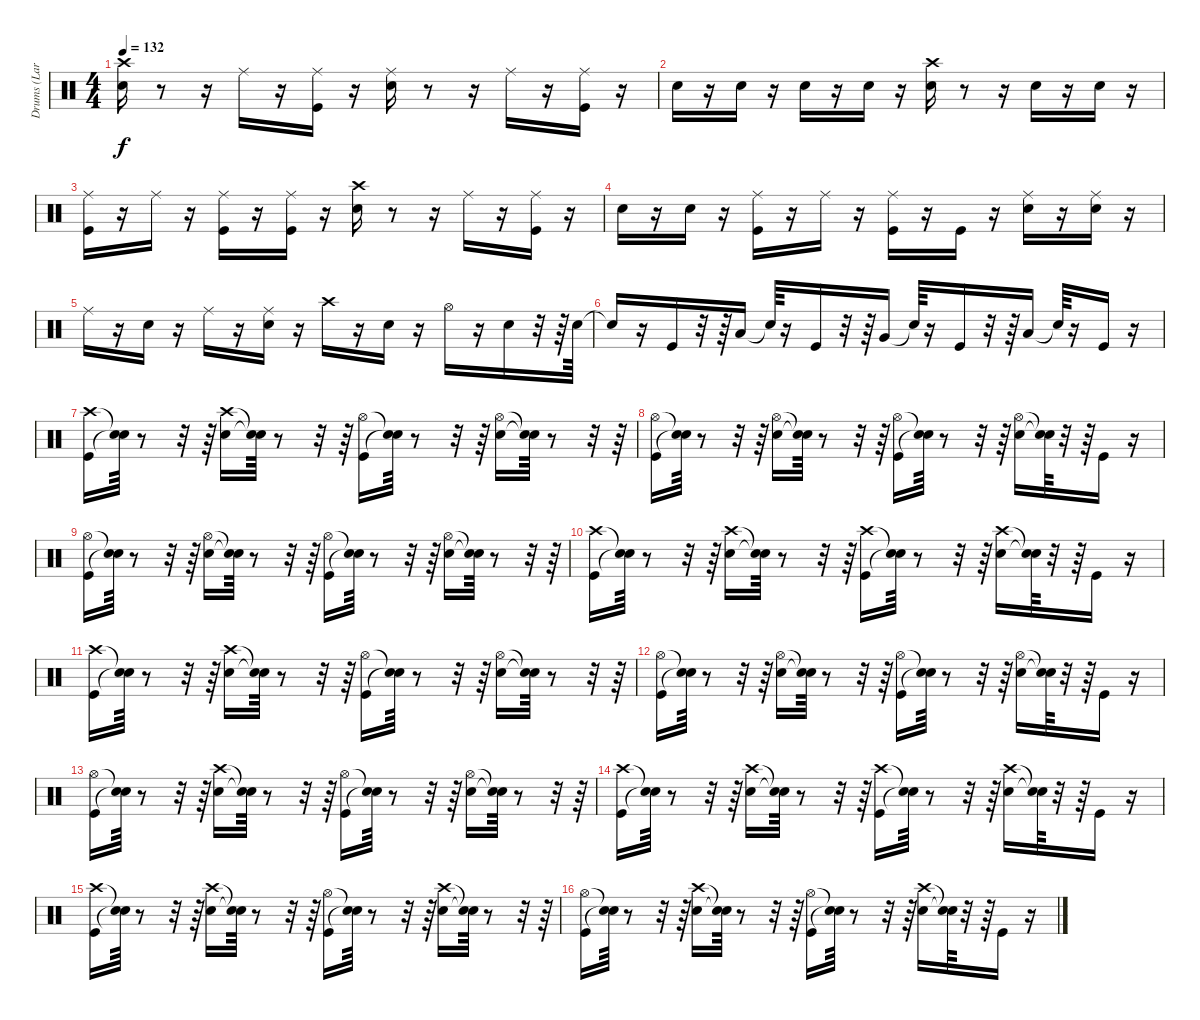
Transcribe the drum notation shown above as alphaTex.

\track ("Drums (Lars)" "Drums (Lar") {instrument percussion}
\staff {score}
\articulation defaults
\ts (4 4)
\tempo 132
\clef neutral
\ks c
("Snare (hit) 2" "Crash high (hit)").16{dy f} r.8 r.16 "Ride (middle)".16 r.16 ("Ride (middle)" "Kick (hit)").16 r.16 ("Ride (middle)" "Snare (hit) 2").16 r.8 r.16 "Ride (middle)".16 r.16 ("Ride (middle)" "Kick (hit)").16 r.16 |
"Snare (hit) 2".16 r.16 "Snare (hit) 2".16 r.16 "Snare (hit) 2".16 r.16 "Snare (hit) 2".16 r.16 ("Snare (hit) 2" "Crash high (hit)").16 r.8 r.16 "Snare (hit) 2".16 r.16 "Snare (hit) 2".16 r.16 |
("Kick (hit)" "Ride (middle)").16 r.16 "Ride (middle)".16 r.16 ("Ride (middle)" "Kick (hit)").16 r.16 ("Ride (middle)" "Kick (hit)").16 r.16 ("Snare (hit) 2" "Crash high (hit)").16 r.8 r.16 "Ride (middle)".16 r.16 ("Ride (middle)" "Kick (hit)").16 r.16 |
"Snare (hit) 2".16 r.16 "Snare (hit) 2".16 r.16 ("Ride (middle)" "Kick (hit)").16 r.16 "Ride (middle)".16 r.16 ("Ride (middle)" "Kick (hit)").16 r.16 "Kick (hit)".16 r.16 ("Ride (middle)" "Snare (hit) 2").16 r.16 ("Ride (middle)" "Snare (hit) 2").16 r.16 |
"Ride (middle)".16 r.16 "Snare (hit) 2".16 r.16 "Ride (middle)".16 r.16 ("Ride (middle)" "Snare (hit) 2").16 r.16 "Crash high (hit)".16 r.16 "Snare (hit) 2".16 r.16 "Hi-Hat (open)".16 r.16 "Snare (hit) 2".16 r.32 r.64 "Snare (hit) 2".64 |
"Snare (hit)"{t}.16 r.16 "Kick (hit)".16 r.32 r.64 "Low Tom (hit)".16 "Snare (hit)"{t}.64 r.16 "Kick (hit)".16 r.32 r.64 "Very Low Tom (hit)".16 "Snare (hit)"{t}.64 r.16 "Kick (hit)".16 r.32 r.64 "Low Floor Tom (hit)".16 "Snare (hit)"{t}.64 r.16 "Kick (hit)".16 r.16 |
("Crash high (hit)" "Kick (hit)").16 ("Snare (hit)"{t} "Snare (hit)"{t}).64 r.8 r.32 r.64 ("Snare (hit) 2" "Crash high (hit)").16 ("Snare (hit)"{t} "Snare (hit)"{t}).64 r.8 r.32 r.64 ("Hi-Hat (open)" "Kick (hit)").16 ("Snare (hit)"{t} "Snare (hit)"{t}).64 r.8 r.32 r.64 ("Hi-Hat (open)" "Snare (hit) 2").16 ("Snare (hit)"{t} "Snare (hit)"{t}).64 r.8 r.32 r.64 |
("Kick (hit)" "Hi-Hat (open)").16 ("Snare (hit)"{t} "Snare (hit)"{t}).64 r.8 r.32 r.64 ("Hi-Hat (open)" "Snare (hit) 2").16 ("Snare (hit)"{t} "Snare (hit)"{t}).64 r.8 r.32 r.64 ("Kick (hit)" "Hi-Hat (open)").16 ("Snare (hit)"{t} "Snare (hit)"{t}).64 r.8 r.32 r.64 ("Hi-Hat (open)" "Snare (hit) 2").16 ("Snare (hit)"{t} "Snare (hit)"{t}).64 r.32 r.64 "Kick (hit)".16 r.16 |
("Hi-Hat (open)" "Kick (hit)").16 ("Snare (hit)"{t} "Snare (hit)"{t}).64 r.8 r.32 r.64 ("Hi-Hat (open)" "Snare (hit) 2").16 ("Snare (hit)"{t} "Snare (hit)"{t}).64 r.8 r.32 r.64 ("Kick (hit)" "Hi-Hat (open)").16 ("Snare (hit)"{t} "Snare (hit)"{t}).64 r.8 r.32 r.64 ("Hi-Hat (open)" "Snare (hit) 2").16 ("Snare (hit)"{t} "Snare (hit)"{t}).64 r.8 r.32 r.64 |
("Kick (hit)" "Crash high (hit)").16 ("Snare (hit)"{t} "Snare (hit)"{t}).64 r.8 r.32 r.64 ("Snare (hit) 2" "Crash high (hit)").16 ("Snare (hit)"{t} "Snare (hit)"{t}).64 r.8 r.32 r.64 ("Kick (hit)" "Crash high (hit)").16 ("Snare (hit)"{t} "Snare (hit)"{t}).64 r.8 r.32 r.64 ("Snare (hit) 2" "Crash high (hit)").16 ("Snare (hit)"{t} "Snare (hit)"{t}).64 r.32 r.64 "Kick (hit)".16 r.16 |
("Kick (hit)" "Crash high (hit)").16 ("Snare (hit)"{t} "Snare (hit)"{t}).64 r.8 r.32 r.64 ("Snare (hit) 2" "Crash high (hit)").16 ("Snare (hit)"{t} "Snare (hit)"{t}).64 r.8 r.32 r.64 ("Hi-Hat (open)" "Kick (hit)").16 ("Snare (hit)"{t} "Snare (hit)"{t}).64 r.8 r.32 r.64 ("Hi-Hat (open)" "Snare (hit) 2").16 ("Snare (hit)"{t} "Snare (hit)"{t}).64 r.8 r.32 r.64 |
("Kick (hit)" "Hi-Hat (open)").16 ("Snare (hit)"{t} "Snare (hit)"{t}).64 r.8 r.32 r.64 ("Hi-Hat (open)" "Snare (hit) 2").16 ("Snare (hit)"{t} "Snare (hit)"{t}).64 r.8 r.32 r.64 ("Kick (hit)" "Hi-Hat (open)").16 ("Snare (hit)"{t} "Snare (hit)"{t}).64 r.8 r.32 r.64 ("Hi-Hat (open)" "Snare (hit) 2").16 ("Snare (hit)"{t} "Snare (hit)"{t}).64 r.32 r.64 "Kick (hit)".16 r.16 |
("Hi-Hat (open)" "Kick (hit)").16 ("Snare (hit)"{t} "Snare (hit)"{t}).64 r.8 r.32 r.64 ("Snare (hit) 2" "Crash high (hit)").16 ("Snare (hit)"{t} "Snare (hit)"{t}).64 r.8 r.32 r.64 ("Kick (hit)" "Hi-Hat (open)").16 ("Snare (hit)"{t} "Snare (hit)"{t}).64 r.8 r.32 r.64 ("Hi-Hat (open)" "Snare (hit) 2").16 ("Snare (hit)"{t} "Snare (hit)"{t}).64 r.8 r.32 r.64 |
("Kick (hit)" "Crash high (hit)").16 ("Snare (hit)"{t} "Snare (hit)"{t}).64 r.8 r.32 r.64 ("Snare (hit) 2" "Crash high (hit)").16 ("Snare (hit)"{t} "Snare (hit)"{t}).64 r.8 r.32 r.64 ("Kick (hit)" "Crash high (hit)").16 ("Snare (hit)"{t} "Snare (hit)"{t}).64 r.8 r.32 r.64 ("Snare (hit) 2" "Crash high (hit)").16 ("Snare (hit)"{t} "Snare (hit)"{t}).64 r.32 r.64 "Kick (hit)".16 r.16 |
("Kick (hit)" "Crash high (hit)").16 ("Snare (hit)"{t} "Snare (hit)"{t}).64 r.8 r.32 r.64 ("Snare (hit) 2" "Crash high (hit)").16 ("Snare (hit)"{t} "Snare (hit)"{t}).64 r.8 r.32 r.64 ("Kick (hit)" "Hi-Hat (open)").16 ("Snare (hit)"{t} "Snare (hit)"{t}).64 r.8 r.32 r.64 ("Snare (hit) 2" "Crash high (hit)").16 ("Snare (hit)"{t} "Snare (hit)"{t}).64 r.8 r.32 r.64 |
("Kick (hit)" "Hi-Hat (open)").16 ("Snare (hit)"{t} "Snare (hit)"{t}).64 r.8 r.32 r.64 ("Snare (hit) 2" "Crash high (hit)").16 ("Snare (hit)"{t} "Snare (hit)"{t}).64 r.8 r.32 r.64 ("Kick (hit)" "Hi-Hat (open)").16 ("Snare (hit)"{t} "Snare (hit)"{t}).64 r.8 r.32 r.64 ("Snare (hit) 2" "Crash high (hit)").16 ("Snare (hit)"{t} "Snare (hit)"{t}).64 r.32 r.64 "Kick (hit)".16 r.16
